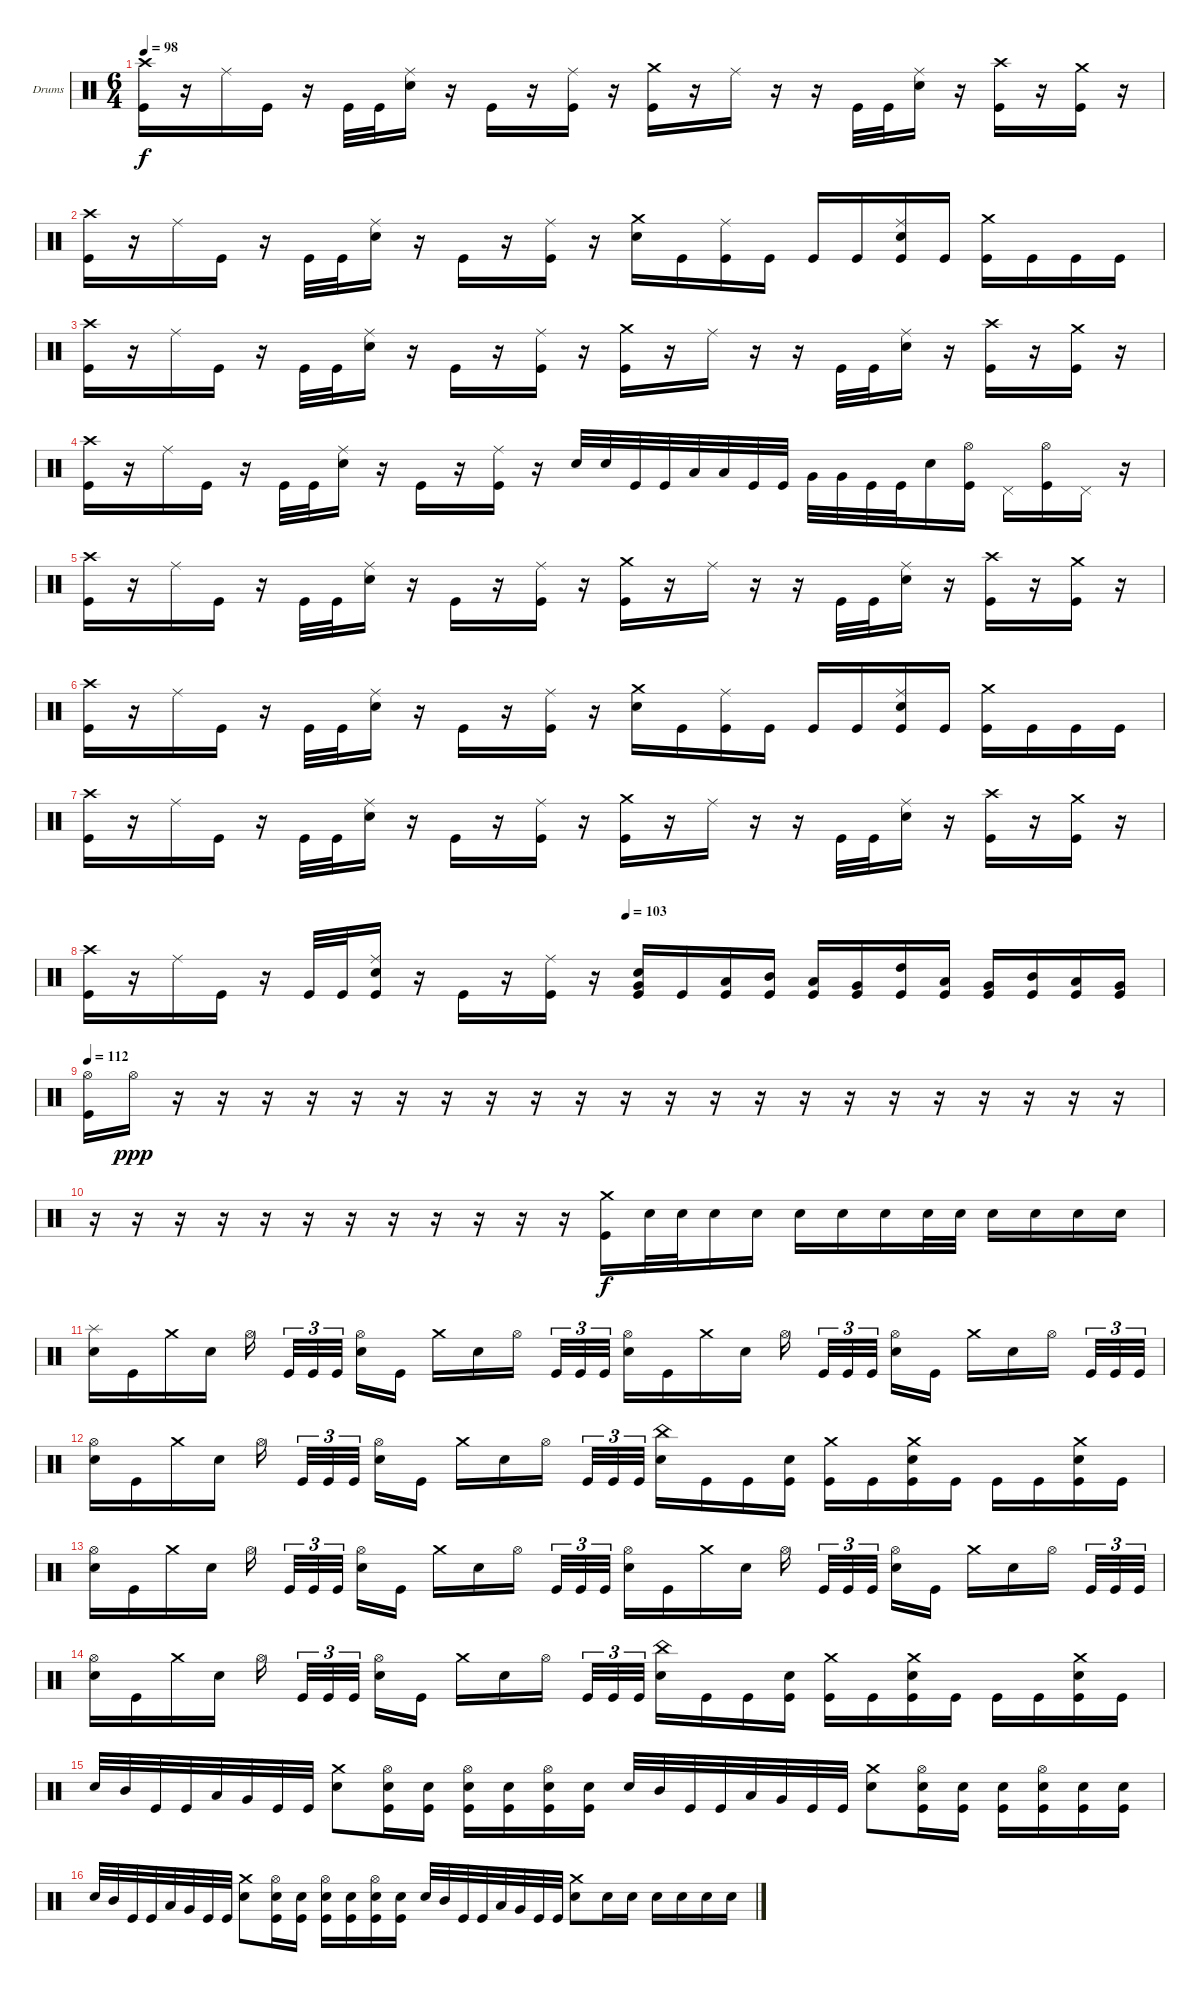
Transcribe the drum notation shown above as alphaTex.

\bracketExtendMode groupsimilarinstruments
\firstSystemTrackNameOrientation horizontal
\otherSystemsTrackNameOrientation horizontal
\track ("Drumkit" "Drums") {instrument percussion}
\staff {score}
\articulation defaults
\ts (6 4)
\tempo 98
\clef neutral
\ks c
("Crash high (hit)" "Kick (hit)").16{dy f} r.16 "Ride (middle)".16 "Kick (hit)".16 r.16 "Kick (hit)".32 "Kick (hit)".32 ("Ride (middle)" "Snare (hit) 2").16 r.16 "Kick (hit)".16 r.16 ("Ride (middle)" "Kick (hit)").16 r.16 ("Crash medium (hit)" "Kick (hit)").16 r.16 "Ride (middle)".16 r.16 r.16 "Kick (hit)".32 "Kick (hit)".32 ("Ride (middle)" "Snare (hit) 2").16 r.16 ("Crash high (hit)" "Kick (hit)").16 r.16 ("Crash medium (hit)" "Kick (hit)").16 r.16 |
("Crash high (hit)" "Kick (hit)").16 r.16 "Ride (middle)".16 "Kick (hit)".16 r.16 "Kick (hit)".32 "Kick (hit)".32 ("Ride (middle)" "Snare (hit) 2").16 r.16 "Kick (hit)".16 r.16 ("Ride (middle)" "Kick (hit)").16 r.16 ("Crash medium (hit)" "Snare (hit) 2").16 "Kick (hit)".16 ("Ride (middle)" "Kick (hit)").16 "Kick (hit)".16 "Kick (hit)".16 "Kick (hit)".16 ("Ride (middle)" "Snare (hit) 2" "Kick (hit)").16 "Kick (hit)".16 ("Crash medium (hit)" "Kick (hit)").16 "Kick (hit)".16 "Kick (hit)".16 "Kick (hit)".16 |
("Crash high (hit)" "Kick (hit)").16 r.16 "Ride (middle)".16 "Kick (hit)".16 r.16 "Kick (hit)".32 "Kick (hit)".32 ("Ride (middle)" "Snare (hit) 2").16 r.16 "Kick (hit)".16 r.16 ("Ride (middle)" "Kick (hit)").16 r.16 ("Crash medium (hit)" "Kick (hit)").16 r.16 "Ride (middle)".16 r.16 r.16 "Kick (hit)".32 "Kick (hit)".32 ("Ride (middle)" "Snare (hit) 2").16 r.16 ("Crash high (hit)" "Kick (hit)").16 r.16 ("Crash medium (hit)" "Kick (hit)").16 r.16 |
("Crash high (hit)" "Kick (hit)").16 r.16 "Ride (middle)".16 "Kick (hit)".16 r.16 "Kick (hit)".32 "Kick (hit)".32 ("Ride (middle)" "Snare (hit) 2").16 r.16 "Kick (hit)".16 r.16 ("Ride (middle)" "Kick (hit)").16 r.16 "Snare (hit) 2".32 "Snare (hit) 2".32 "Kick (hit)".32 "Kick (hit)".32 "Low Tom (hit)".32 "Low Tom (hit)".32 "Kick (hit)".32 "Kick (hit)".32 "Very Low Tom (hit)".32 "Very Low Tom (hit)".32 "Kick (hit)".32 "Kick (hit)".32 "Snare (hit) 2".16 ("Hi-Hat (open)" "Kick (hit)").16 "Pedal Hi-Hat (hit)".16 ("Hi-Hat (open)" "Kick (hit)").16 "Pedal Hi-Hat (hit)".16 r.16 |
("Crash high (hit)" "Kick (hit)").16 r.16 "Ride (middle)".16 "Kick (hit)".16 r.16 "Kick (hit)".32 "Kick (hit)".32 ("Ride (middle)" "Snare (hit) 2").16 r.16 "Kick (hit)".16 r.16 ("Ride (middle)" "Kick (hit)").16 r.16 ("Crash medium (hit)" "Kick (hit)").16 r.16 "Ride (middle)".16 r.16 r.16 "Kick (hit)".32 "Kick (hit)".32 ("Ride (middle)" "Snare (hit) 2").16 r.16 ("Crash high (hit)" "Kick (hit)").16 r.16 ("Crash medium (hit)" "Kick (hit)").16 r.16 |
("Crash high (hit)" "Kick (hit)").16 r.16 "Ride (middle)".16 "Kick (hit)".16 r.16 "Kick (hit)".32 "Kick (hit)".32 ("Ride (middle)" "Snare (hit) 2").16 r.16 "Kick (hit)".16 r.16 ("Ride (middle)" "Kick (hit)").16 r.16 ("Crash medium (hit)" "Snare (hit) 2").16 "Kick (hit)".16 ("Ride (middle)" "Kick (hit)").16 "Kick (hit)".16 "Kick (hit)".16 "Kick (hit)".16 ("Ride (middle)" "Snare (hit) 2" "Kick (hit)").16 "Kick (hit)".16 ("Crash medium (hit)" "Kick (hit)").16 "Kick (hit)".16 "Kick (hit)".16 "Kick (hit)".16 |
("Crash high (hit)" "Kick (hit)").16 r.16 "Ride (middle)".16 "Kick (hit)".16 r.16 "Kick (hit)".32 "Kick (hit)".32 ("Ride (middle)" "Snare (hit) 2").16 r.16 "Kick (hit)".16 r.16 ("Ride (middle)" "Kick (hit)").16 r.16 ("Crash medium (hit)" "Kick (hit)").16 r.16 "Ride (middle)".16 r.16 r.16 "Kick (hit)".32 "Kick (hit)".32 ("Ride (middle)" "Snare (hit) 2").16 r.16 ("Crash high (hit)" "Kick (hit)").16 r.16 ("Crash medium (hit)" "Kick (hit)").16 r.16 |
\tempo (103 0.5)
("Crash high (hit)" "Kick (hit)").16 r.16 "Ride (middle)".16 "Kick (hit)".16 r.16 "Kick (hit)".32 "Kick (hit)".32 ("Ride (middle)" "Snare (hit) 2" "Kick (hit)").16 r.16 "Kick (hit)".16 r.16 ("Ride (middle)" "Kick (hit)").16 r.16 ("Snare (hit) 2" "Very Low Tom (hit)" "Kick (hit)").16 "Kick (hit)".16 ("Low Tom (hit)" "Kick (hit)").16 ("Mid Tom (hit)" "Kick (hit)").16 ("Low Tom (hit)" "Kick (hit)").16 ("Very Low Tom (hit)" "Kick (hit)").16 ("High Tom (hit)" "Kick (hit)").16 ("Low Tom (hit)" "Kick (hit)").16 ("Very Low Tom (hit)" "Kick (hit)").16 ("Mid Tom (hit)" "Kick (hit)").16 ("Low Tom (hit)" "Kick (hit)").16 ("Very Low Tom (hit)" "Kick (hit)").16 |
\tempo 112
("Hi-Hat (open)" "Kick (hit)").16 "Hi-Hat (open)".16{dy ppp} r.16 r.16 r.16 r.16 r.16 r.16 r.16 r.16 r.16 r.16 r.16 r.16 r.16 r.16 r.16 r.16 r.16 r.16 r.16 r.16 r.16 r.16 |
r.16 r.16 r.16 r.16 r.16 r.16 r.16 r.16 r.16 r.16 r.16 r.16 ("Crash medium (hit)" "Kick (hit)").16{dy f} "Snare (hit) 2".32 "Snare (hit) 2".32 "Snare (hit) 2".16 "Snare (hit) 2".16 "Snare (hit) 2".16 "Snare (hit) 2".16 "Snare (hit) 2".16 "Snare (hit) 2".32 "Snare (hit) 2".32 "Snare (hit) 2".16 "Snare (hit) 2".16 "Snare (hit) 2".16 "Snare (hit) 2".16 |
("Splash (hit)" "Snare (hit) 2").16 "Kick (hit)".16 "Crash medium (hit)".16 "Snare (hit) 2".16 "Hi-Hat (open)".16 "Kick (hit)".32{tu (3 2)} "Kick (hit)".32{tu (3 2)} "Kick (hit)".32{tu (3 2)} ("Hi-Hat (open)" "Snare (hit) 2").16 "Kick (hit)".16 "Crash medium (hit)".16 "Snare (hit) 2".16 "Hi-Hat (open)".16 "Kick (hit)".32{tu (3 2)} "Kick (hit)".32{tu (3 2)} "Kick (hit)".32{tu (3 2)} ("Hi-Hat (open)" "Snare (hit) 2").16 "Kick (hit)".16 "Crash medium (hit)".16 "Snare (hit) 2".16 "Hi-Hat (open)".16 "Kick (hit)".32{tu (3 2)} "Kick (hit)".32{tu (3 2)} "Kick (hit)".32{tu (3 2)} ("Hi-Hat (open)" "Snare (hit) 2").16 "Kick (hit)".16 "Crash medium (hit)".16 "Snare (hit) 2".16 "Hi-Hat (open)".16 "Kick (hit)".32{tu (3 2)} "Kick (hit)".32{tu (3 2)} "Kick (hit)".32{tu (3 2)} |
("Hi-Hat (open)" "Snare (hit) 2").16 "Kick (hit)".16 "Crash medium (hit)".16 "Snare (hit) 2".16 "Hi-Hat (open)".16 "Kick (hit)".32{tu (3 2)} "Kick (hit)".32{tu (3 2)} "Kick (hit)".32{tu (3 2)} ("Hi-Hat (open)" "Snare (hit) 2").16 "Kick (hit)".16 "Crash medium (hit)".16 "Snare (hit) 2".16 "Hi-Hat (open)".16 "Kick (hit)".32{tu (3 2)} "Kick (hit)".32{tu (3 2)} "Kick (hit)".32{tu (3 2)} ("China (hit)" "Snare (hit) 2").16 "Kick (hit)".16 "Kick (hit)".16 ("Snare (hit) 2" "Kick (hit)").16 ("Crash medium (hit)" "Kick (hit)").16 "Kick (hit)".16 ("Crash medium (hit)" "Snare (hit) 2" "Kick (hit)").16 "Kick (hit)".16 "Kick (hit)".16 "Kick (hit)".16 ("Crash medium (hit)" "Snare (hit) 2" "Kick (hit)").16 "Kick (hit)".16 |
("Hi-Hat (open)" "Snare (hit) 2").16 "Kick (hit)".16 "Crash medium (hit)".16 "Snare (hit) 2".16 "Hi-Hat (open)".16 "Kick (hit)".32{tu (3 2)} "Kick (hit)".32{tu (3 2)} "Kick (hit)".32{tu (3 2)} ("Hi-Hat (open)" "Snare (hit) 2").16 "Kick (hit)".16 "Crash medium (hit)".16 "Snare (hit) 2".16 "Hi-Hat (open)".16 "Kick (hit)".32{tu (3 2)} "Kick (hit)".32{tu (3 2)} "Kick (hit)".32{tu (3 2)} ("Hi-Hat (open)" "Snare (hit) 2").16 "Kick (hit)".16 "Crash medium (hit)".16 "Snare (hit) 2".16 "Hi-Hat (open)".16 "Kick (hit)".32{tu (3 2)} "Kick (hit)".32{tu (3 2)} "Kick (hit)".32{tu (3 2)} ("Hi-Hat (open)" "Snare (hit) 2").16 "Kick (hit)".16 "Crash medium (hit)".16 "Snare (hit) 2".16 "Hi-Hat (open)".16 "Kick (hit)".32{tu (3 2)} "Kick (hit)".32{tu (3 2)} "Kick (hit)".32{tu (3 2)} |
("Hi-Hat (open)" "Snare (hit) 2").16 "Kick (hit)".16 "Crash medium (hit)".16 "Snare (hit) 2".16 "Hi-Hat (open)".16 "Kick (hit)".32{tu (3 2)} "Kick (hit)".32{tu (3 2)} "Kick (hit)".32{tu (3 2)} ("Hi-Hat (open)" "Snare (hit) 2").16 "Kick (hit)".16 "Crash medium (hit)".16 "Snare (hit) 2".16 "Hi-Hat (open)".16 "Kick (hit)".32{tu (3 2)} "Kick (hit)".32{tu (3 2)} "Kick (hit)".32{tu (3 2)} ("China (hit)" "Snare (hit) 2").16 "Kick (hit)".16 "Kick (hit)".16 ("Snare (hit) 2" "Kick (hit)").16 ("Crash medium (hit)" "Kick (hit)").16 "Kick (hit)".16 ("Crash medium (hit)" "Snare (hit) 2" "Kick (hit)").16 "Kick (hit)".16 "Kick (hit)".16 "Kick (hit)".16 ("Crash medium (hit)" "Snare (hit) 2" "Kick (hit)").16 "Kick (hit)".16 |
"Snare (hit) 2".32 "Mid Tom (hit)".32 "Kick (hit)".32 "Kick (hit)".32 "Low Tom (hit)".32 "Very Low Tom (hit)".32 "Kick (hit)".32 "Kick (hit)".32 ("Crash medium (hit)" "Snare (hit) 2").8 ("Hi-Hat (open)" "Snare (hit) 2" "Kick (hit)").16 ("Snare (hit) 2" "Kick (hit)").16 ("Hi-Hat (open)" "Snare (hit) 2" "Kick (hit)").16 ("Snare (hit) 2" "Kick (hit)").16 ("Hi-Hat (open)" "Snare (hit) 2" "Kick (hit)").16 ("Snare (hit) 2" "Kick (hit)").16 "Snare (hit) 2".32 "Mid Tom (hit)".32 "Kick (hit)".32 "Kick (hit)".32 "Low Tom (hit)".32 "Very Low Tom (hit)".32 "Kick (hit)".32 "Kick (hit)".32 ("Crash medium (hit)" "Snare (hit) 2").8 ("Hi-Hat (open)" "Snare (hit) 2" "Kick (hit)").16 ("Snare (hit) 2" "Kick (hit)").16 ("Snare (hit) 2" "Kick (hit)").16 ("Hi-Hat (open)" "Snare (hit) 2" "Kick (hit)").16 ("Snare (hit) 2" "Kick (hit)").16 ("Snare (hit) 2" "Kick (hit)").16 |
"Snare (hit) 2".32 "Mid Tom (hit)".32 "Kick (hit)".32 "Kick (hit)".32 "Low Tom (hit)".32 "Very Low Tom (hit)".32 "Kick (hit)".32 "Kick (hit)".32 ("Crash medium (hit)" "Snare (hit) 2").8 ("Hi-Hat (open)" "Snare (hit) 2" "Kick (hit)").16 ("Snare (hit) 2" "Kick (hit)").16 ("Hi-Hat (open)" "Snare (hit) 2" "Kick (hit)").16 ("Snare (hit) 2" "Kick (hit)").16 ("Hi-Hat (open)" "Snare (hit) 2" "Kick (hit)").16 ("Snare (hit) 2" "Kick (hit)").16 "Snare (hit) 2".32 "Mid Tom (hit)".32 "Kick (hit)".32 "Kick (hit)".32 "Low Tom (hit)".32 "Very Low Tom (hit)".32 "Kick (hit)".32 "Kick (hit)".32 ("Crash medium (hit)" "Snare (hit) 2").8 "Snare (hit) 2".16 "Snare (hit) 2".16 "Snare (hit) 2".16 "Snare (hit) 2".16 "Snare (hit) 2".16 "Snare (hit) 2".16
